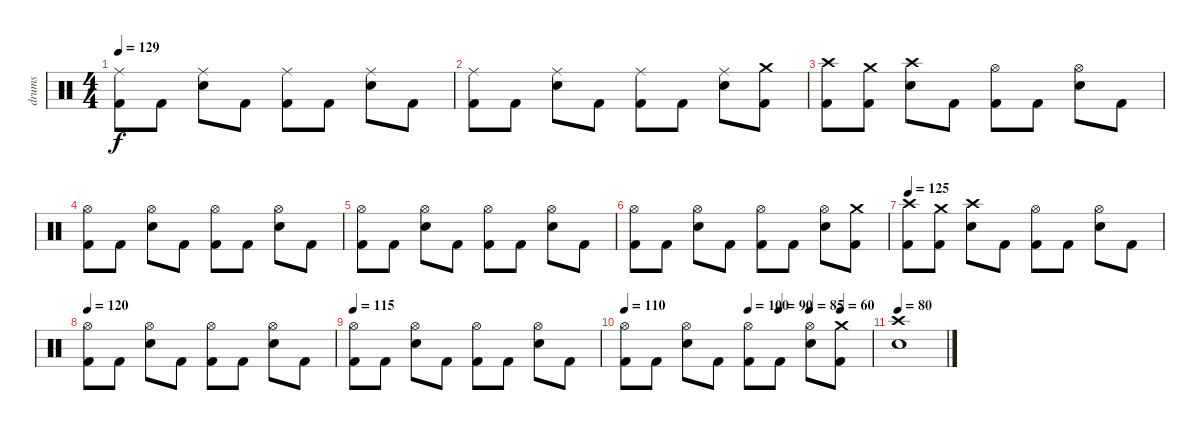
\track ("drums" "drums") {instrument percussion}
\staff {score}
\articulation defaults
\ts (4 4)
\tempo 129
\clef neutral
\ks c
("Kick (hit) 2" "Ride (middle)").8{dy f} "Kick (hit) 2".8 ("Ride (middle)" "Snare (hit) 2").8 "Kick (hit) 2".8 ("Kick (hit) 2" "Ride (middle)").8 "Kick (hit) 2".8 ("Ride (middle)" "Snare (hit) 2").8 "Kick (hit) 2".8 |
("Kick (hit) 2" "Ride (middle)").8 "Kick (hit) 2".8 ("Ride (middle)" "Snare (hit) 2").8 "Kick (hit) 2".8 ("Kick (hit) 2" "Ride (middle)").8 "Kick (hit) 2".8 ("Ride (middle)" "Snare (hit) 2").8 ("Kick (hit) 2" "Crash medium (hit)").8 |
("Kick (hit) 2" "Crash high (hit)").8 ("Kick (hit) 2" "Crash medium (hit)").8 ("Crash high (hit)" "Snare (hit) 2").8 "Kick (hit) 2".8 ("Kick (hit) 2" "Hi-Hat (open)").8 "Kick (hit) 2".8 ("Hi-Hat (open)" "Snare (hit) 2").8 "Kick (hit) 2".8 |
("Kick (hit) 2" "Hi-Hat (open)").8 "Kick (hit) 2".8 ("Hi-Hat (open)" "Snare (hit) 2").8 "Kick (hit) 2".8 ("Kick (hit) 2" "Hi-Hat (open)").8 "Kick (hit) 2".8 ("Hi-Hat (open)" "Snare (hit) 2").8 "Kick (hit) 2".8 |
("Kick (hit) 2" "Hi-Hat (open)").8 "Kick (hit) 2".8 ("Hi-Hat (open)" "Snare (hit) 2").8 "Kick (hit) 2".8 ("Kick (hit) 2" "Hi-Hat (open)").8 "Kick (hit) 2".8 ("Hi-Hat (open)" "Snare (hit) 2").8 "Kick (hit) 2".8 |
("Kick (hit) 2" "Hi-Hat (open)").8 "Kick (hit) 2".8 ("Hi-Hat (open)" "Snare (hit) 2").8 "Kick (hit) 2".8 ("Kick (hit) 2" "Hi-Hat (open)").8 "Kick (hit) 2".8 ("Hi-Hat (open)" "Snare (hit) 2").8 ("Kick (hit) 2" "Crash medium (hit)").8 |
\tempo 125
("Kick (hit) 2" "Crash high (hit)").8 ("Kick (hit) 2" "Crash medium (hit)").8 ("Crash high (hit)" "Snare (hit) 2").8 "Kick (hit) 2".8 ("Kick (hit) 2" "Hi-Hat (open)").8 "Kick (hit) 2".8 ("Hi-Hat (open)" "Snare (hit) 2").8 "Kick (hit) 2".8 |
\tempo 120
("Kick (hit) 2" "Hi-Hat (open)").8 "Kick (hit) 2".8 ("Hi-Hat (open)" "Snare (hit) 2").8 "Kick (hit) 2".8 ("Kick (hit) 2" "Hi-Hat (open)").8 "Kick (hit) 2".8 ("Hi-Hat (open)" "Snare (hit) 2").8 "Kick (hit) 2".8 |
\tempo 115
("Kick (hit) 2" "Hi-Hat (open)").8 "Kick (hit) 2".8 ("Hi-Hat (open)" "Snare (hit) 2").8 "Kick (hit) 2".8 ("Kick (hit) 2" "Hi-Hat (open)").8 "Kick (hit) 2".8 ("Hi-Hat (open)" "Snare (hit) 2").8 "Kick (hit) 2".8 |
\tempo 110
\tempo (100 0.5)
\tempo (90 0.625)
\tempo (85 0.75)
\tempo (60 0.875)
("Kick (hit) 2" "Hi-Hat (open)").8 "Kick (hit) 2".8 ("Hi-Hat (open)" "Snare (hit) 2").8 "Kick (hit) 2".8 ("Kick (hit) 2" "Hi-Hat (open)").8 "Kick (hit) 2".8 ("Hi-Hat (open)" "Snare (hit) 2").8 ("Kick (hit) 2" "Crash medium (hit)").8 |
\tempo 80
("Crash high (hit)" "Snare (hit) 2").1
